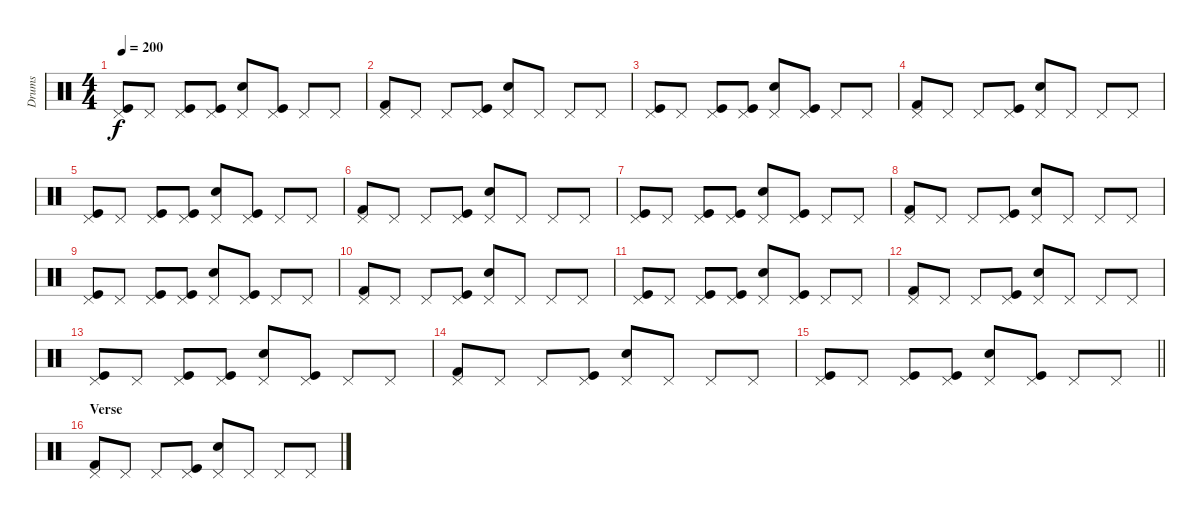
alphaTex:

\track ("Drums" "Drums") {instrument percussion}
\staff {score}
\articulation defaults
\ts (4 4)
\tempo 200
\clef neutral
\ks c
("Kick (hit)" "Pedal Hi-Hat (hit)").8{dy f} "Pedal Hi-Hat (hit)".8 ("Kick (hit)" "Pedal Hi-Hat (hit)").8 ("Kick (hit)" "Pedal Hi-Hat (hit)").8 ("Snare (hit) 2" "Pedal Hi-Hat (hit)").8 ("Kick (hit)" "Pedal Hi-Hat (hit)").8 "Pedal Hi-Hat (hit)".8 "Pedal Hi-Hat (hit)".8 |
("Kick (hit) 2" "Pedal Hi-Hat (hit)").8 "Pedal Hi-Hat (hit)".8 "Pedal Hi-Hat (hit)".8 ("Kick (hit)" "Pedal Hi-Hat (hit)").8 ("Snare (hit) 2" "Pedal Hi-Hat (hit)").8 "Pedal Hi-Hat (hit)".8 "Pedal Hi-Hat (hit)".8 "Pedal Hi-Hat (hit)".8 |
("Kick (hit)" "Pedal Hi-Hat (hit)").8 "Pedal Hi-Hat (hit)".8 ("Kick (hit)" "Pedal Hi-Hat (hit)").8 ("Kick (hit)" "Pedal Hi-Hat (hit)").8 ("Snare (hit) 2" "Pedal Hi-Hat (hit)").8 ("Kick (hit)" "Pedal Hi-Hat (hit)").8 "Pedal Hi-Hat (hit)".8 "Pedal Hi-Hat (hit)".8 |
("Kick (hit) 2" "Pedal Hi-Hat (hit)").8 "Pedal Hi-Hat (hit)".8 "Pedal Hi-Hat (hit)".8 ("Kick (hit)" "Pedal Hi-Hat (hit)").8 ("Snare (hit) 2" "Pedal Hi-Hat (hit)").8 "Pedal Hi-Hat (hit)".8 "Pedal Hi-Hat (hit)".8 "Pedal Hi-Hat (hit)".8 |
("Kick (hit)" "Pedal Hi-Hat (hit)").8 "Pedal Hi-Hat (hit)".8 ("Kick (hit)" "Pedal Hi-Hat (hit)").8 ("Kick (hit)" "Pedal Hi-Hat (hit)").8 ("Snare (hit) 2" "Pedal Hi-Hat (hit)").8 ("Kick (hit)" "Pedal Hi-Hat (hit)").8 "Pedal Hi-Hat (hit)".8 "Pedal Hi-Hat (hit)".8 |
("Kick (hit) 2" "Pedal Hi-Hat (hit)").8 "Pedal Hi-Hat (hit)".8 "Pedal Hi-Hat (hit)".8 ("Kick (hit)" "Pedal Hi-Hat (hit)").8 ("Snare (hit) 2" "Pedal Hi-Hat (hit)").8 "Pedal Hi-Hat (hit)".8 "Pedal Hi-Hat (hit)".8 "Pedal Hi-Hat (hit)".8 |
("Kick (hit)" "Pedal Hi-Hat (hit)").8 "Pedal Hi-Hat (hit)".8 ("Kick (hit)" "Pedal Hi-Hat (hit)").8 ("Kick (hit)" "Pedal Hi-Hat (hit)").8 ("Snare (hit) 2" "Pedal Hi-Hat (hit)").8 ("Kick (hit)" "Pedal Hi-Hat (hit)").8 "Pedal Hi-Hat (hit)".8 "Pedal Hi-Hat (hit)".8 |
("Kick (hit) 2" "Pedal Hi-Hat (hit)").8 "Pedal Hi-Hat (hit)".8 "Pedal Hi-Hat (hit)".8 ("Kick (hit)" "Pedal Hi-Hat (hit)").8 ("Snare (hit) 2" "Pedal Hi-Hat (hit)").8 "Pedal Hi-Hat (hit)".8 "Pedal Hi-Hat (hit)".8 "Pedal Hi-Hat (hit)".8 |
("Kick (hit)" "Pedal Hi-Hat (hit)").8 "Pedal Hi-Hat (hit)".8 ("Kick (hit)" "Pedal Hi-Hat (hit)").8 ("Kick (hit)" "Pedal Hi-Hat (hit)").8 ("Snare (hit) 2" "Pedal Hi-Hat (hit)").8 ("Kick (hit)" "Pedal Hi-Hat (hit)").8 "Pedal Hi-Hat (hit)".8 "Pedal Hi-Hat (hit)".8 |
("Kick (hit) 2" "Pedal Hi-Hat (hit)").8 "Pedal Hi-Hat (hit)".8 "Pedal Hi-Hat (hit)".8 ("Kick (hit)" "Pedal Hi-Hat (hit)").8 ("Snare (hit) 2" "Pedal Hi-Hat (hit)").8 "Pedal Hi-Hat (hit)".8 "Pedal Hi-Hat (hit)".8 "Pedal Hi-Hat (hit)".8 |
("Kick (hit)" "Pedal Hi-Hat (hit)").8 "Pedal Hi-Hat (hit)".8 ("Kick (hit)" "Pedal Hi-Hat (hit)").8 ("Kick (hit)" "Pedal Hi-Hat (hit)").8 ("Snare (hit) 2" "Pedal Hi-Hat (hit)").8 ("Kick (hit)" "Pedal Hi-Hat (hit)").8 "Pedal Hi-Hat (hit)".8 "Pedal Hi-Hat (hit)".8 |
("Kick (hit) 2" "Pedal Hi-Hat (hit)").8 "Pedal Hi-Hat (hit)".8 "Pedal Hi-Hat (hit)".8 ("Kick (hit)" "Pedal Hi-Hat (hit)").8 ("Snare (hit) 2" "Pedal Hi-Hat (hit)").8 "Pedal Hi-Hat (hit)".8 "Pedal Hi-Hat (hit)".8 "Pedal Hi-Hat (hit)".8 |
("Kick (hit)" "Pedal Hi-Hat (hit)").8 "Pedal Hi-Hat (hit)".8 ("Kick (hit)" "Pedal Hi-Hat (hit)").8 ("Kick (hit)" "Pedal Hi-Hat (hit)").8 ("Snare (hit) 2" "Pedal Hi-Hat (hit)").8 ("Kick (hit)" "Pedal Hi-Hat (hit)").8 "Pedal Hi-Hat (hit)".8 "Pedal Hi-Hat (hit)".8 |
("Kick (hit) 2" "Pedal Hi-Hat (hit)").8 "Pedal Hi-Hat (hit)".8 "Pedal Hi-Hat (hit)".8 ("Kick (hit)" "Pedal Hi-Hat (hit)").8 ("Snare (hit) 2" "Pedal Hi-Hat (hit)").8 "Pedal Hi-Hat (hit)".8 "Pedal Hi-Hat (hit)".8 "Pedal Hi-Hat (hit)".8 |
\barLineRight lightlight
("Kick (hit)" "Pedal Hi-Hat (hit)").8 "Pedal Hi-Hat (hit)".8 ("Kick (hit)" "Pedal Hi-Hat (hit)").8 ("Kick (hit)" "Pedal Hi-Hat (hit)").8 ("Snare (hit) 2" "Pedal Hi-Hat (hit)").8 ("Kick (hit)" "Pedal Hi-Hat (hit)").8 "Pedal Hi-Hat (hit)".8 "Pedal Hi-Hat (hit)".8 |
\section ("" "Verse")
("Kick (hit) 2" "Pedal Hi-Hat (hit)").8 "Pedal Hi-Hat (hit)".8 "Pedal Hi-Hat (hit)".8 ("Kick (hit)" "Pedal Hi-Hat (hit)").8 ("Snare (hit) 2" "Pedal Hi-Hat (hit)").8 "Pedal Hi-Hat (hit)".8 "Pedal Hi-Hat (hit)".8 "Pedal Hi-Hat (hit)".8
